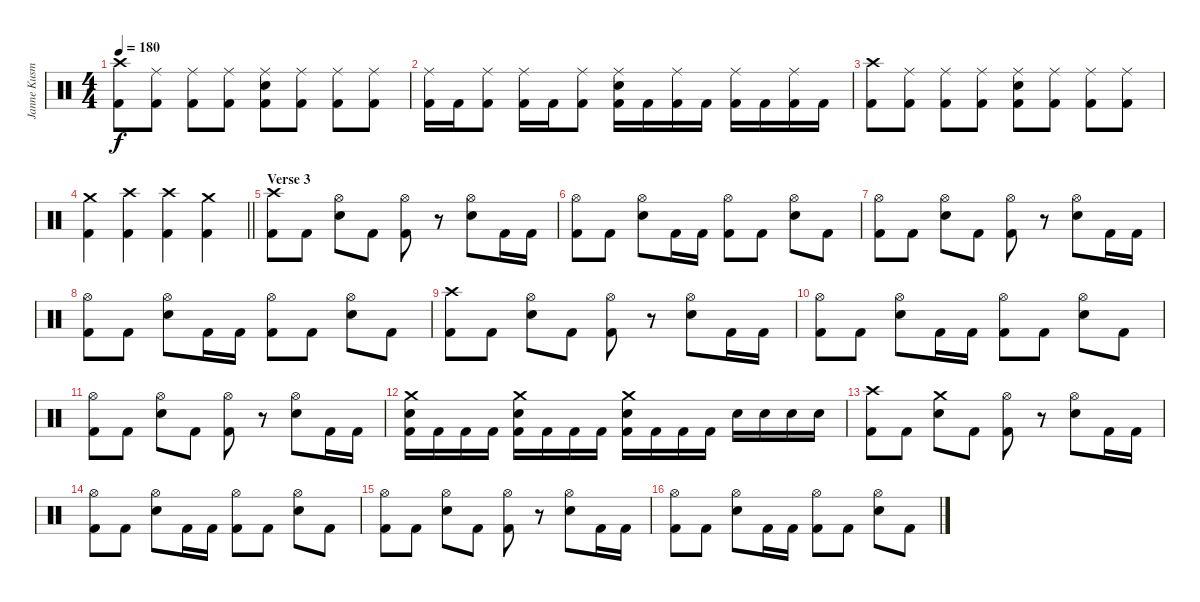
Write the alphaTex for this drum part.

\track ("Janne Kusmin - Drums" "Janne Kusm") {instrument percussion}
\staff {score}
\articulation defaults
\ts (4 4)
\tempo 180
\clef neutral
\ks c
("Crash high (hit)" "Kick (hit) 2").8{dy f} ("Ride (middle)" "Kick (hit) 2").8 ("Ride (middle)" "Kick (hit) 2").8 ("Ride (middle)" "Kick (hit) 2").8 ("Ride (middle)" "Electric Snare (hit)" "Kick (hit) 2").8 ("Ride (middle)" "Kick (hit) 2").8 ("Ride (middle)" "Kick (hit) 2").8 ("Ride (middle)" "Kick (hit) 2").8 |
("Ride (middle)" "Kick (hit) 2").16 "Kick (hit) 2".16 ("Ride (middle)" "Kick (hit) 2").8 ("Ride (middle)" "Kick (hit) 2").16 "Kick (hit) 2".16 ("Ride (middle)" "Kick (hit) 2").8 ("Ride (middle)" "Electric Snare (hit)" "Kick (hit) 2").16 "Kick (hit) 2".16 ("Ride (middle)" "Kick (hit) 2").16 "Kick (hit) 2".16 ("Ride (middle)" "Kick (hit) 2").16 "Kick (hit) 2".16 ("Ride (middle)" "Kick (hit) 2").16 "Kick (hit) 2".16 |
("Crash high (hit)" "Kick (hit) 2").8 ("Ride (middle)" "Kick (hit) 2").8 ("Ride (middle)" "Kick (hit) 2").8 ("Ride (middle)" "Kick (hit) 2").8 ("Ride (middle)" "Electric Snare (hit)" "Kick (hit) 2").8 ("Ride (middle)" "Kick (hit) 2").8 ("Ride (middle)" "Kick (hit) 2").8 ("Ride (middle)" "Kick (hit) 2").8 |
\barLineRight lightlight
("Crash medium (hit)" "Kick (hit) 2").4 ("Crash high (hit)" "Kick (hit) 2").4 ("Crash high (hit)" "Kick (hit) 2").4 ("Crash medium (hit)" "Kick (hit) 2").4 |
\section ("" "Verse 3")
("Crash high (hit)" "Kick (hit) 2").8 "Kick (hit) 2".8 ("Hi-Hat (open)" "Electric Snare (hit)").8 "Kick (hit) 2".8 ("Hi-Hat (open)" "Kick (hit) 2").8 r.8 ("Hi-Hat (open)" "Electric Snare (hit)").8 "Kick (hit) 2".16 "Kick (hit) 2".16 |
("Hi-Hat (open)" "Kick (hit) 2").8 "Kick (hit) 2".8 ("Hi-Hat (open)" "Electric Snare (hit)").8 "Kick (hit) 2".16 "Kick (hit) 2".16 ("Hi-Hat (open)" "Kick (hit) 2").8 "Kick (hit) 2".8 ("Hi-Hat (open)" "Electric Snare (hit)").8 "Kick (hit) 2".8 |
("Hi-Hat (open)" "Kick (hit) 2").8 "Kick (hit) 2".8 ("Hi-Hat (open)" "Electric Snare (hit)").8 "Kick (hit) 2".8 ("Hi-Hat (open)" "Kick (hit) 2").8 r.8 ("Hi-Hat (open)" "Electric Snare (hit)").8 "Kick (hit) 2".16 "Kick (hit) 2".16 |
("Hi-Hat (open)" "Kick (hit) 2").8 "Kick (hit) 2".8 ("Hi-Hat (open)" "Electric Snare (hit)").8 "Kick (hit) 2".16 "Kick (hit) 2".16 ("Hi-Hat (open)" "Kick (hit) 2").8 "Kick (hit) 2".8 ("Hi-Hat (open)" "Electric Snare (hit)").8 "Kick (hit) 2".8 |
("Crash high (hit)" "Kick (hit) 2").8 "Kick (hit) 2".8 ("Hi-Hat (open)" "Electric Snare (hit)").8 "Kick (hit) 2".8 ("Hi-Hat (open)" "Kick (hit) 2").8 r.8 ("Hi-Hat (open)" "Electric Snare (hit)").8 "Kick (hit) 2".16 "Kick (hit) 2".16 |
("Hi-Hat (open)" "Kick (hit) 2").8 "Kick (hit) 2".8 ("Hi-Hat (open)" "Electric Snare (hit)").8 "Kick (hit) 2".16 "Kick (hit) 2".16 ("Hi-Hat (open)" "Kick (hit) 2").8 "Kick (hit) 2".8 ("Hi-Hat (open)" "Electric Snare (hit)").8 "Kick (hit) 2".8 |
("Hi-Hat (open)" "Kick (hit) 2").8 "Kick (hit) 2".8 ("Hi-Hat (open)" "Electric Snare (hit)").8 "Kick (hit) 2".8 ("Hi-Hat (open)" "Kick (hit) 2").8 r.8 ("Hi-Hat (open)" "Electric Snare (hit)").8 "Kick (hit) 2".16 "Kick (hit) 2".16 |
("Crash medium (hit)" "Electric Snare (hit)" "Kick (hit) 2").16 "Kick (hit) 2".16 "Kick (hit) 2".16 "Kick (hit) 2".16 ("Crash medium (hit)" "Electric Snare (hit)" "Kick (hit) 2").16 "Kick (hit) 2".16 "Kick (hit) 2".16 "Kick (hit) 2".16 ("Crash medium (hit)" "Electric Snare (hit)" "Kick (hit) 2").16 "Kick (hit) 2".16 "Kick (hit) 2".16 "Kick (hit) 2".16 "Electric Snare (hit)".16 "Electric Snare (hit)".16 "Electric Snare (hit)".16 "Electric Snare (hit)".16 |
("Crash high (hit)" "Kick (hit) 2").8 "Kick (hit) 2".8 ("Crash medium (hit)" "Electric Snare (hit)").8 "Kick (hit) 2".8 ("Hi-Hat (open)" "Kick (hit) 2").8 r.8 ("Hi-Hat (open)" "Electric Snare (hit)").8 "Kick (hit) 2".16 "Kick (hit) 2".16 |
("Hi-Hat (open)" "Kick (hit) 2").8 "Kick (hit) 2".8 ("Hi-Hat (open)" "Electric Snare (hit)").8 "Kick (hit) 2".16 "Kick (hit) 2".16 ("Hi-Hat (open)" "Kick (hit) 2").8 "Kick (hit) 2".8 ("Hi-Hat (open)" "Electric Snare (hit)").8 "Kick (hit) 2".8 |
("Hi-Hat (open)" "Kick (hit) 2").8 "Kick (hit) 2".8 ("Hi-Hat (open)" "Electric Snare (hit)").8 "Kick (hit) 2".8 ("Hi-Hat (open)" "Kick (hit) 2").8 r.8 ("Hi-Hat (open)" "Electric Snare (hit)").8 "Kick (hit) 2".16 "Kick (hit) 2".16 |
("Hi-Hat (open)" "Kick (hit) 2").8 "Kick (hit) 2".8 ("Hi-Hat (open)" "Electric Snare (hit)").8 "Kick (hit) 2".16 "Kick (hit) 2".16 ("Hi-Hat (open)" "Kick (hit) 2").8 "Kick (hit) 2".8 ("Hi-Hat (open)" "Electric Snare (hit)").8 "Kick (hit) 2".8
